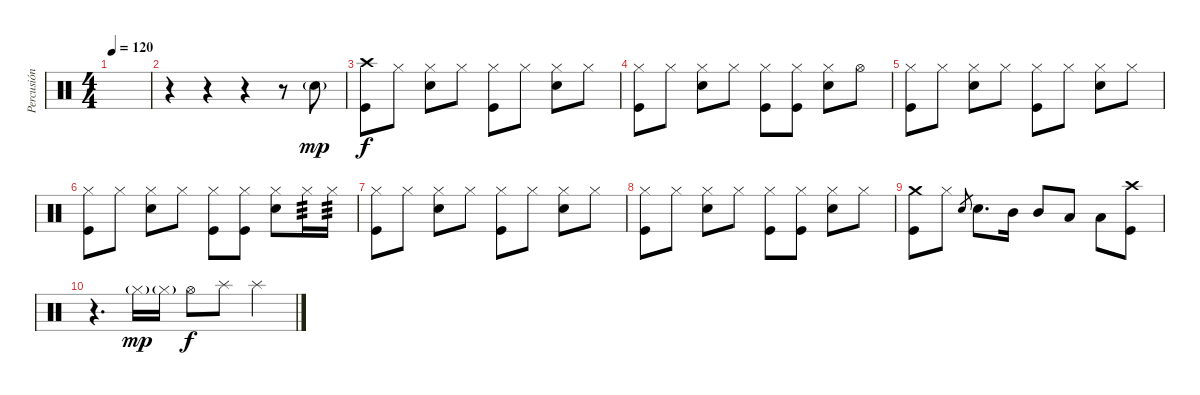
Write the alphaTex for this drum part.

\track ("Percusión" "Percusión") {instrument percussion}
\staff {score}
\articulation defaults
\ts (4 4)
\tempo 120
\clef neutral
\ks c
|
r.4 r.4 r.4 r.8 "Snare (hit) 2"{g}.8{dy mp} |
("Crash high (hit)" "Kick (hit)").8{dy f} "Hi-Hat (closed)".8 ("Hi-Hat (closed)" "Snare (hit) 2").8 "Hi-Hat (closed)".8 ("Hi-Hat (closed)" "Kick (hit)").8 "Hi-Hat (closed)".8 ("Hi-Hat (closed)" "Snare (hit) 2").8 "Hi-Hat (closed)".8 |
("Hi-Hat (closed)" "Kick (hit)").8 "Hi-Hat (closed)".8 ("Hi-Hat (closed)" "Snare (hit) 2").8 "Hi-Hat (closed)".8 ("Hi-Hat (closed)" "Kick (hit)").8 ("Hi-Hat (closed)" "Kick (hit)").8 ("Hi-Hat (closed)" "Snare (hit) 2").8 "Hi-Hat (open)".8 |
("Hi-Hat (closed)" "Kick (hit)").8 "Hi-Hat (closed)".8 ("Hi-Hat (closed)" "Snare (hit) 2").8 "Hi-Hat (closed)".8 ("Hi-Hat (closed)" "Kick (hit)").8 "Hi-Hat (closed)".8 ("Hi-Hat (closed)" "Snare (hit) 2").8 "Hi-Hat (closed)".8 |
("Hi-Hat (closed)" "Kick (hit)").8 "Hi-Hat (closed)".8 ("Hi-Hat (closed)" "Snare (hit) 2").8 "Hi-Hat (closed)".8 ("Hi-Hat (closed)" "Kick (hit)").8 ("Hi-Hat (closed)" "Kick (hit)").8 ("Hi-Hat (closed)" "Snare (hit) 2").8 "Hi-Hat (closed)".16{tp 3} "Hi-Hat (closed)".16{tp 3} |
("Hi-Hat (closed)" "Kick (hit)").8 "Hi-Hat (closed)".8 ("Hi-Hat (closed)" "Snare (hit) 2").8 "Hi-Hat (closed)".8 ("Hi-Hat (closed)" "Kick (hit)").8 "Hi-Hat (closed)".8 ("Hi-Hat (closed)" "Snare (hit) 2").8 "Hi-Hat (closed)".8 |
("Hi-Hat (closed)" "Kick (hit)").8 "Hi-Hat (closed)".8 ("Hi-Hat (closed)" "Snare (hit) 2").8 "Hi-Hat (closed)".8 ("Hi-Hat (closed)" "Kick (hit)").8 ("Hi-Hat (closed)" "Kick (hit)").8 ("Hi-Hat (closed)" "Snare (hit) 2").8 "Hi-Hat (closed)".8 |
("Crash medium (hit)" "Kick (hit)").8 "Hi-Hat (closed)".8 "Snare (hit) 2".8{gr} "Snare (hit) 2".8{d} "Mid Tom (hit)".16 "Mid Tom (hit)".8 "Low Floor Tom (hit)".8 "Low Floor Tom (hit)".8 ("Crash high (hit)" "Kick (hit)").8 |
r.4{d} "Hi-Hat (closed)"{g}.16{dy mp} "Hi-Hat (closed)"{g}.16 "Hi-Hat (open)".8{dy f} "Splash (hit)".8 "Splash (hit)".4
